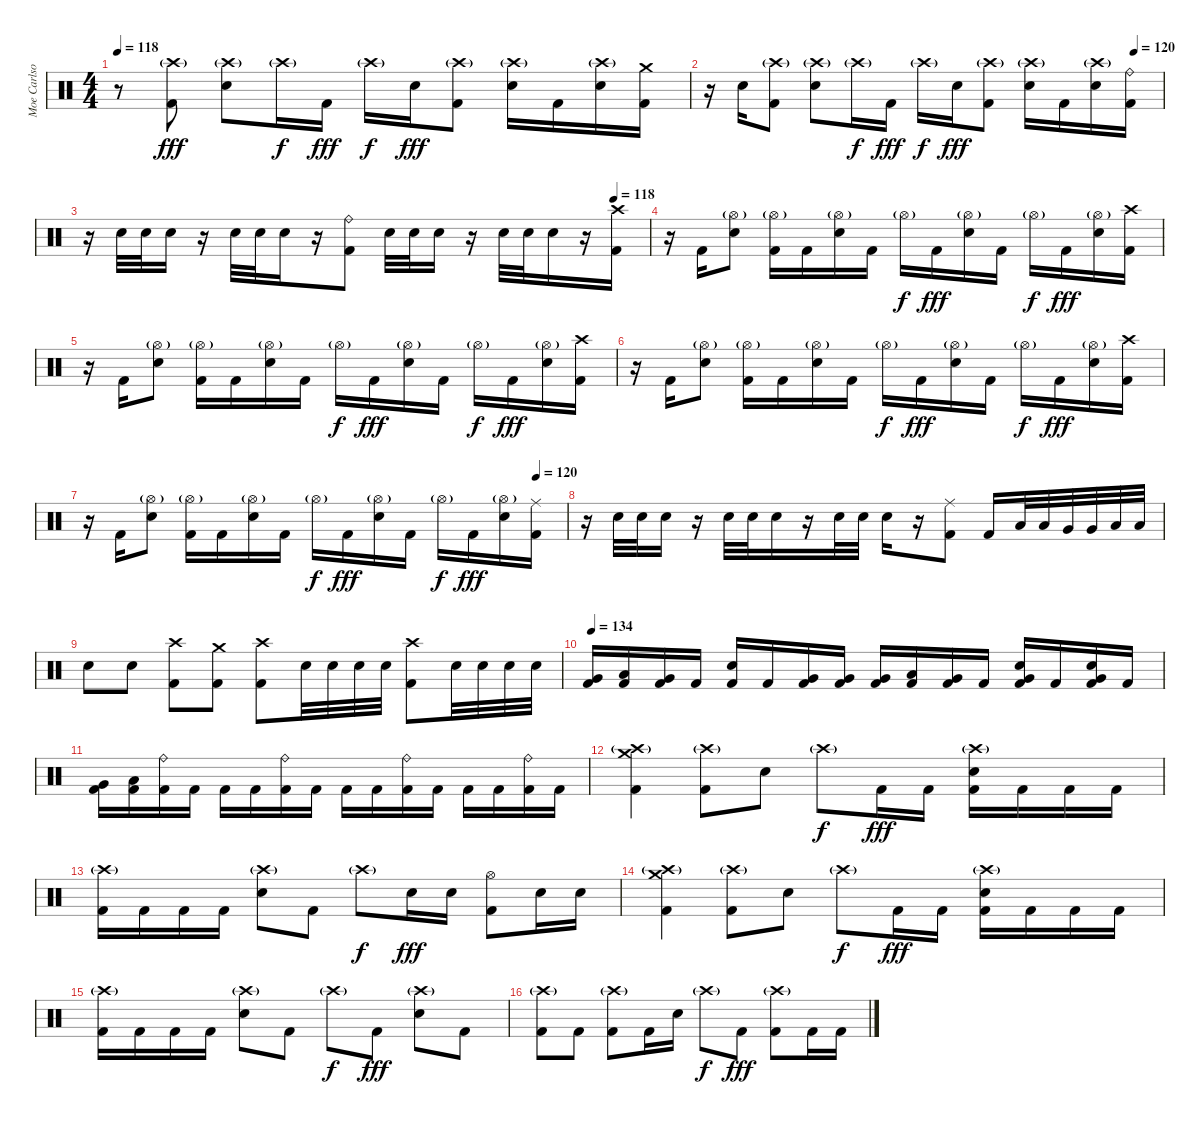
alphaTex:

\track ("Moe Carlson" "Moe Carlso") {instrument percussion}
\staff {score}
\articulation defaults
\ts (4 4)
\tempo 118
\clef neutral
\ks c
r.8{dy fff} ("Crash high (hit)"{g} "Kick (hit) 2").8 ("Crash high (hit)"{g} "Electric Snare (hit)").8 "Crash high (hit)"{g}.16{dy f} "Kick (hit) 2".16{dy fff} "Crash high (hit)"{g}.16{dy f} "Electric Snare (hit)".16{dy fff} ("Crash high (hit)"{g} "Kick (hit) 2").8 ("Crash high (hit)"{g} "Electric Snare (hit)").16 "Kick (hit) 2".16 ("Crash high (hit)"{g} "Electric Snare (hit)").16 ("Crash medium (hit)" "Kick (hit) 2").16 |
\tempo (120 0.9375)
r.16 "Electric Snare (hit)".16 ("Crash high (hit)"{g} "Kick (hit) 2").8 ("Crash high (hit)"{g} "Electric Snare (hit)").8 "Crash high (hit)"{g}.16{dy f} "Kick (hit) 2".16{dy fff} "Crash high (hit)"{g}.16{dy f} "Electric Snare (hit)".16{dy fff} ("Crash high (hit)"{g} "Kick (hit) 2").8 ("Crash high (hit)"{g} "Electric Snare (hit)").16 "Kick (hit) 2".16 ("Crash high (hit)"{g} "Electric Snare (hit)").16 ("Ride (bell)" "Kick (hit) 2").16 |
\tempo (118 0.9375)
r.16 "Electric Snare (hit)".32 "Electric Snare (hit)".32 "Electric Snare (hit)".16 r.16 "Electric Snare (hit)".32 "Electric Snare (hit)".32 "Electric Snare (hit)".16 r.16 ("Ride (bell)" "Kick (hit) 2").8 "Electric Snare (hit)".32 "Electric Snare (hit)".32 "Electric Snare (hit)".16 r.16 "Electric Snare (hit)".32 "Electric Snare (hit)".32 "Electric Snare (hit)".16 r.16 ("Crash high (hit)" "Kick (hit) 2").16 |
r.16 "Kick (hit) 2".16 ("Hi-Hat (open)"{g} "Electric Snare (hit)").8 ("Hi-Hat (open)"{g} "Kick (hit) 2").16 "Kick (hit) 2".16 ("Hi-Hat (open)"{g} "Electric Snare (hit)").16 "Kick (hit) 2".16 "Hi-Hat (open)"{g}.16{dy f} "Kick (hit) 2".16{dy fff} ("Hi-Hat (open)"{g} "Electric Snare (hit)").16 "Kick (hit) 2".16 "Hi-Hat (open)"{g}.16{dy f} "Kick (hit) 2".16{dy fff} ("Hi-Hat (open)"{g} "Electric Snare (hit)").16 ("Crash high (hit)" "Kick (hit) 2").16 |
r.16 "Kick (hit) 2".16 ("Hi-Hat (open)"{g} "Electric Snare (hit)").8 ("Hi-Hat (open)"{g} "Kick (hit) 2").16 "Kick (hit) 2".16 ("Hi-Hat (open)"{g} "Electric Snare (hit)").16 "Kick (hit) 2".16 "Hi-Hat (open)"{g}.16{dy f} "Kick (hit) 2".16{dy fff} ("Hi-Hat (open)"{g} "Electric Snare (hit)").16 "Kick (hit) 2".16 "Hi-Hat (open)"{g}.16{dy f} "Kick (hit) 2".16{dy fff} ("Hi-Hat (open)"{g} "Electric Snare (hit)").16 ("Crash high (hit)" "Kick (hit) 2").16 |
r.16 "Kick (hit) 2".16 ("Hi-Hat (open)"{g} "Electric Snare (hit)").8 ("Hi-Hat (open)"{g} "Kick (hit) 2").16 "Kick (hit) 2".16 ("Hi-Hat (open)"{g} "Electric Snare (hit)").16 "Kick (hit) 2".16 "Hi-Hat (open)"{g}.16{dy f} "Kick (hit) 2".16{dy fff} ("Hi-Hat (open)"{g} "Electric Snare (hit)").16 "Kick (hit) 2".16 "Hi-Hat (open)"{g}.16{dy f} "Kick (hit) 2".16{dy fff} ("Hi-Hat (open)"{g} "Electric Snare (hit)").16 ("Crash high (hit)" "Kick (hit) 2").16 |
\tempo (120 0.9375)
r.16 "Kick (hit) 2".16 ("Hi-Hat (open)"{g} "Electric Snare (hit)").8 ("Hi-Hat (open)"{g} "Kick (hit) 2").16 "Kick (hit) 2".16 ("Hi-Hat (open)"{g} "Electric Snare (hit)").16 "Kick (hit) 2".16 "Hi-Hat (open)"{g}.16{dy f} "Kick (hit) 2".16{dy fff} ("Hi-Hat (open)"{g} "Electric Snare (hit)").16 "Kick (hit) 2".16 "Hi-Hat (open)"{g}.16{dy f} "Kick (hit) 2".16{dy fff} ("Hi-Hat (open)"{g} "Electric Snare (hit)").16 ("Ride (middle)" "Kick (hit) 2").16 |
r.16 "Electric Snare (hit)".32 "Electric Snare (hit)".32 "Electric Snare (hit)".16 r.16 "Electric Snare (hit)".32 "Electric Snare (hit)".32 "Electric Snare (hit)".16 r.16 "Electric Snare (hit)".32 "Electric Snare (hit)".32 "Electric Snare (hit)".16 r.16 ("Ride (middle)" "Kick (hit) 2").8 "Kick (hit) 2".16 "Low Tom (hit)".32 "Low Tom (hit)".32 "Very Low Tom (hit)".32 "Very Low Tom (hit)".32 "Low Floor Tom (hit)".32 "Low Floor Tom (hit)".32 |
"Electric Snare (hit)".8 "Electric Snare (hit)".8 ("Crash high (hit)" "Kick (hit) 2").8 ("Crash medium (hit)" "Kick (hit) 2").8 ("Crash high (hit)" "Kick (hit) 2").8 "Electric Snare (hit)".32 "Electric Snare (hit)".32 "Electric Snare (hit)".32 "Electric Snare (hit)".32 ("Crash high (hit)" "Kick (hit) 2").8 "Electric Snare (hit)".32 "Electric Snare (hit)".32 "Electric Snare (hit)".32 "Electric Snare (hit)".32 |
\tempo 134
("Very Low Tom (hit)" "Kick (hit) 2").16 ("Low Tom (hit)" "Kick (hit) 2").16 ("Very Low Tom (hit)" "Kick (hit) 2").16 "Kick (hit) 2".16 ("Electric Snare (hit)" "Kick (hit) 2").16 "Kick (hit) 2".16 ("Very Low Tom (hit)" "Kick (hit) 2").16 ("Very Low Tom (hit)" "Kick (hit) 2").16 ("Very Low Tom (hit)" "Kick (hit) 2").16 ("Low Tom (hit)" "Kick (hit) 2").16 ("Very Low Tom (hit)" "Kick (hit) 2").16 "Kick (hit) 2".16 ("Electric Snare (hit)" "Very Low Tom (hit)" "Kick (hit) 2").16 "Kick (hit) 2".16 ("Electric Snare (hit)" "Very Low Tom (hit)" "Kick (hit) 2").16 "Kick (hit) 2".16 |
("Very Low Tom (hit)" "Kick (hit) 2").16 ("Low Tom (hit)" "Kick (hit) 2").16 ("Ride (bell)" "Kick (hit) 2").16 "Kick (hit) 2".16 "Kick (hit) 2".16 "Kick (hit) 2".16 ("Ride (bell)" "Kick (hit) 2").16 "Kick (hit) 2".16 "Kick (hit) 2".16 "Kick (hit) 2".16 ("Ride (bell)" "Kick (hit) 2").16 "Kick (hit) 2".16 "Kick (hit) 2".16 "Kick (hit) 2".16 ("Ride (bell)" "Kick (hit) 2").16 "Kick (hit) 2".16 |
("Crash high (hit)"{g} "Crash medium (hit)" "Kick (hit) 2").4 ("Crash high (hit)"{g} "Kick (hit) 2").8 "Electric Snare (hit)".8 "Crash high (hit)"{g}.8{dy f} "Kick (hit) 2".16{dy fff} "Kick (hit) 2".16 ("Crash high (hit)"{g} "Electric Snare (hit)" "Kick (hit) 2").16 "Kick (hit) 2".16 "Kick (hit) 2".16 "Kick (hit) 2".16 |
("Crash high (hit)"{g} "Kick (hit) 2").16 "Kick (hit) 2".16 "Kick (hit) 2".16 "Kick (hit) 2".16 ("Crash high (hit)"{g} "Electric Snare (hit)").8 "Kick (hit) 2".8 "Crash high (hit)"{g}.8{dy f} "Electric Snare (hit)".16{dy fff} "Electric Snare (hit)".16 ("Hi-Hat (open)" "Kick (hit) 2").8 "Electric Snare (hit)".16 "Electric Snare (hit)".16 |
("Crash high (hit)"{g} "Crash medium (hit)" "Kick (hit) 2").4 ("Crash high (hit)"{g} "Kick (hit) 2").8 "Electric Snare (hit)".8 "Crash high (hit)"{g}.8{dy f} "Kick (hit) 2".16{dy fff} "Kick (hit) 2".16 ("Crash high (hit)"{g} "Electric Snare (hit)" "Kick (hit) 2").16 "Kick (hit) 2".16 "Kick (hit) 2".16 "Kick (hit) 2".16 |
("Crash high (hit)"{g} "Kick (hit) 2").16 "Kick (hit) 2".16 "Kick (hit) 2".16 "Kick (hit) 2".16 ("Crash high (hit)"{g} "Electric Snare (hit)").8 "Kick (hit) 2".8 "Crash high (hit)"{g}.8{dy f} "Kick (hit) 2".8{dy fff} ("Crash high (hit)"{g} "Electric Snare (hit)").8 "Kick (hit) 2".8 |
("Crash high (hit)"{g} "Kick (hit) 2").8 "Kick (hit) 2".8 ("Crash high (hit)"{g} "Kick (hit) 2").8 "Kick (hit) 2".16 "Electric Snare (hit)".16 "Crash high (hit)"{g}.8{dy f} "Kick (hit) 2".8{dy fff} ("Crash high (hit)"{g} "Kick (hit) 2").8 "Kick (hit) 2".16 "Kick (hit) 2".16
